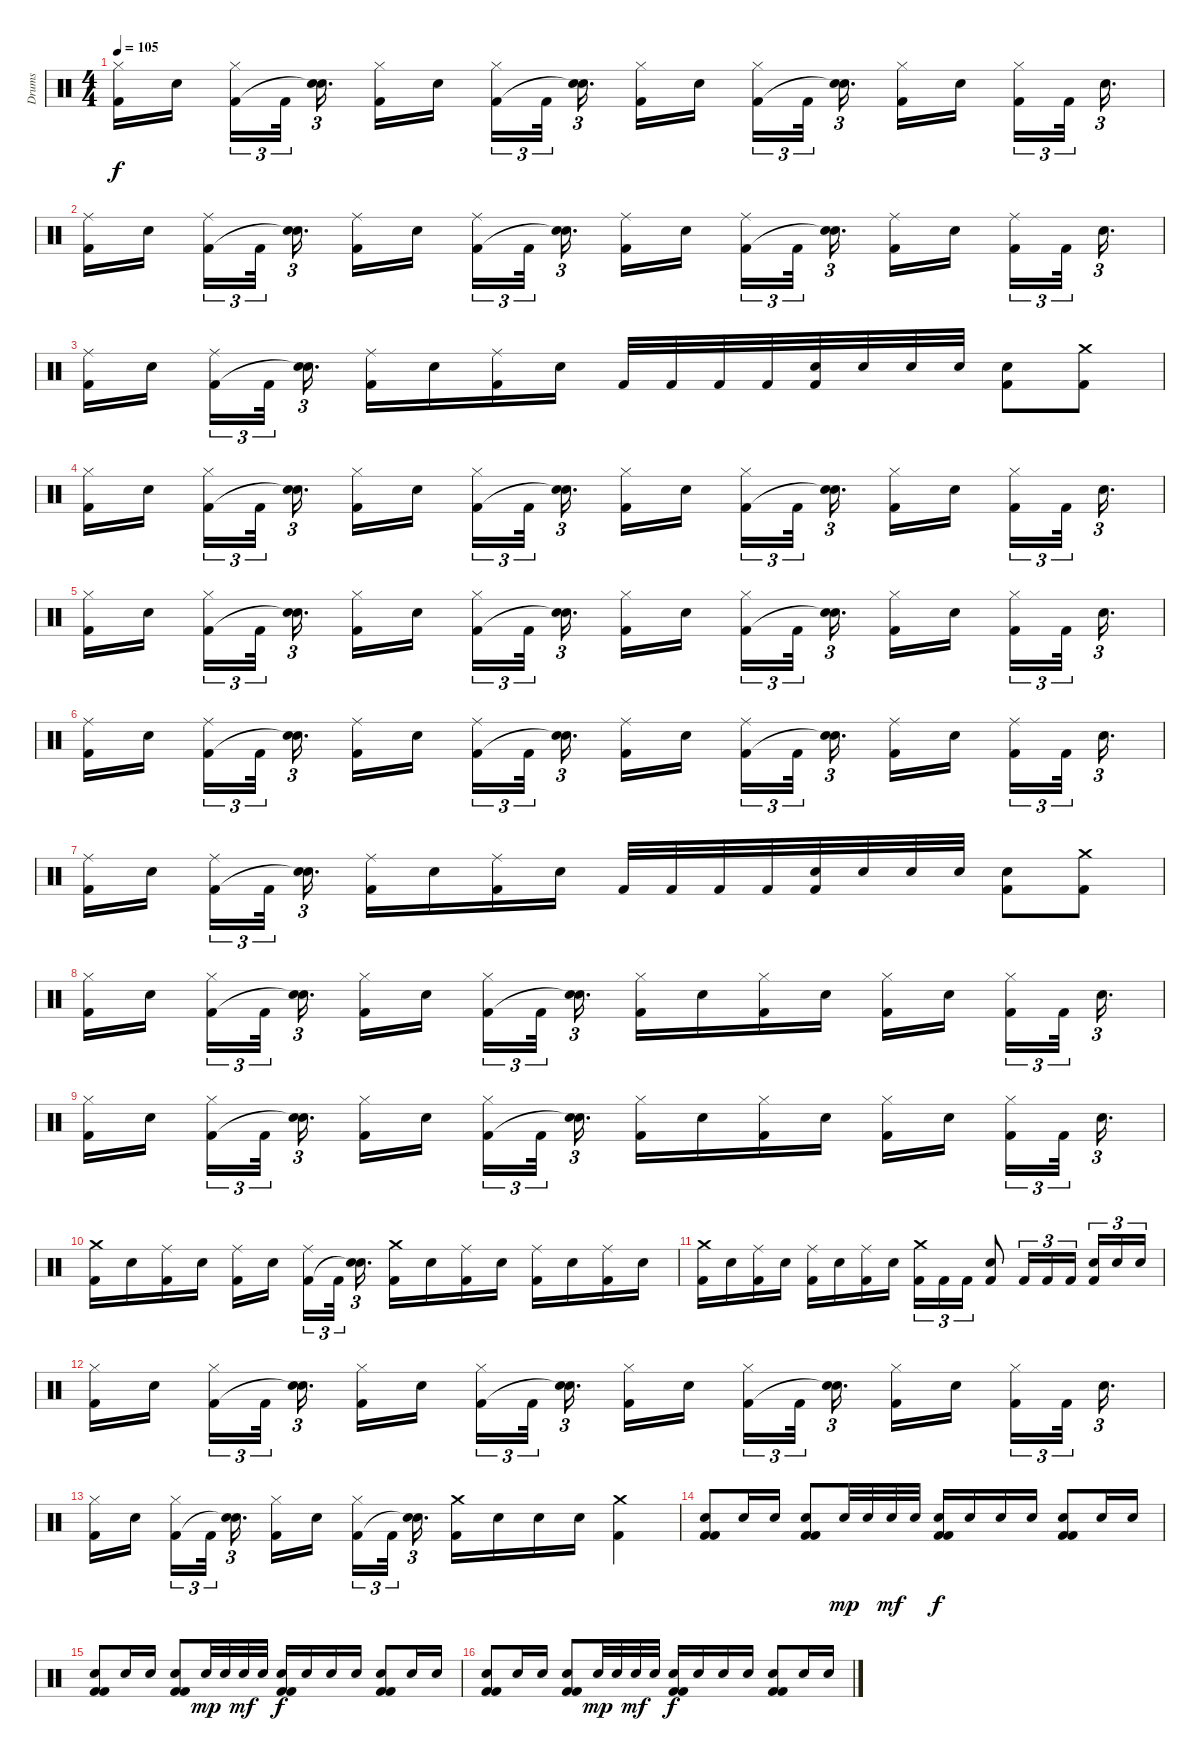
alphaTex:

\track ("Drums" "Drums") {instrument percussion}
\staff {score}
\articulation defaults
\ts (4 4)
\tempo 105
\clef neutral
\ks c
("Hi-Hat (closed)" "Kick (hit) 2").16{dy f} "Electric Snare (hit)".16 ("Hi-Hat (closed)" "Kick (hit) 2").16{tu (3 2)} "Kick (hit) 2".32{tu (3 2)} ("Electric Snare (hit)" "Snare (hit)"{t}).16{d tu (3 2)} ("Hi-Hat (closed)" "Kick (hit) 2").16 "Electric Snare (hit)".16 ("Hi-Hat (closed)" "Kick (hit) 2").16{tu (3 2)} "Kick (hit) 2".32{tu (3 2)} ("Electric Snare (hit)" "Snare (hit)"{t}).16{d tu (3 2)} ("Hi-Hat (closed)" "Kick (hit) 2").16 "Electric Snare (hit)".16 ("Hi-Hat (closed)" "Kick (hit) 2").16{tu (3 2)} "Kick (hit) 2".32{tu (3 2)} ("Electric Snare (hit)" "Snare (hit)"{t}).16{d tu (3 2)} ("Hi-Hat (closed)" "Kick (hit) 2").16 "Electric Snare (hit)".16 ("Hi-Hat (closed)" "Kick (hit) 2").16{tu (3 2)} "Kick (hit) 2".32{tu (3 2)} "Electric Snare (hit)".16{d tu (3 2)} |
("Ride (middle)" "Kick (hit) 2").16 "Electric Snare (hit)".16 ("Ride (middle)" "Kick (hit) 2").16{tu (3 2)} "Kick (hit) 2".32{tu (3 2)} ("Electric Snare (hit)" "Snare (hit)"{t}).16{d tu (3 2)} ("Ride (middle)" "Kick (hit) 2").16 "Electric Snare (hit)".16 ("Ride (middle)" "Kick (hit) 2").16{tu (3 2)} "Kick (hit) 2".32{tu (3 2)} ("Electric Snare (hit)" "Snare (hit)"{t}).16{d tu (3 2)} ("Ride (middle)" "Kick (hit) 2").16 "Electric Snare (hit)".16 ("Ride (middle)" "Kick (hit) 2").16{tu (3 2)} "Kick (hit) 2".32{tu (3 2)} ("Electric Snare (hit)" "Snare (hit)"{t}).16{d tu (3 2)} ("Ride (middle)" "Kick (hit) 2").16 "Electric Snare (hit)".16 ("Ride (middle)" "Kick (hit) 2").16{tu (3 2)} "Kick (hit) 2".32{tu (3 2)} "Electric Snare (hit)".16{d tu (3 2)} |
("Ride (middle)" "Kick (hit) 2").16 "Electric Snare (hit)".16 ("Ride (middle)" "Kick (hit) 2").16{tu (3 2)} "Kick (hit) 2".32{tu (3 2)} ("Electric Snare (hit)" "Snare (hit)"{t}).16{d tu (3 2)} ("Ride (middle)" "Kick (hit) 2").16 "Electric Snare (hit)".16 ("Ride (middle)" "Kick (hit) 2").16 "Electric Snare (hit)".16 "Kick (hit) 2".32 "Kick (hit) 2".32 "Kick (hit) 2".32 "Kick (hit) 2".32 ("Electric Snare (hit)" "Kick (hit) 2").32 "Electric Snare (hit)".32 "Electric Snare (hit)".32 "Electric Snare (hit)".32 ("Electric Snare (hit)" "Kick (hit) 2").8 ("Crash medium (hit)" "Kick (hit) 2").8 |
("Hi-Hat (closed)" "Kick (hit) 2").16 "Electric Snare (hit)".16 ("Hi-Hat (closed)" "Kick (hit) 2").16{tu (3 2)} "Kick (hit) 2".32{tu (3 2)} ("Electric Snare (hit)" "Snare (hit)"{t}).16{d tu (3 2)} ("Hi-Hat (closed)" "Kick (hit) 2").16 "Electric Snare (hit)".16 ("Hi-Hat (closed)" "Kick (hit) 2").16{tu (3 2)} "Kick (hit) 2".32{tu (3 2)} ("Electric Snare (hit)" "Snare (hit)"{t}).16{d tu (3 2)} ("Hi-Hat (closed)" "Kick (hit) 2").16 "Electric Snare (hit)".16 ("Hi-Hat (closed)" "Kick (hit) 2").16{tu (3 2)} "Kick (hit) 2".32{tu (3 2)} ("Electric Snare (hit)" "Snare (hit)"{t}).16{d tu (3 2)} ("Hi-Hat (closed)" "Kick (hit) 2").16 "Electric Snare (hit)".16 ("Hi-Hat (closed)" "Kick (hit) 2").16{tu (3 2)} "Kick (hit) 2".32{tu (3 2)} "Electric Snare (hit)".16{d tu (3 2)} |
("Hi-Hat (closed)" "Kick (hit) 2").16 "Electric Snare (hit)".16 ("Hi-Hat (closed)" "Kick (hit) 2").16{tu (3 2)} "Kick (hit) 2".32{tu (3 2)} ("Electric Snare (hit)" "Snare (hit)"{t}).16{d tu (3 2)} ("Hi-Hat (closed)" "Kick (hit) 2").16 "Electric Snare (hit)".16 ("Hi-Hat (closed)" "Kick (hit) 2").16{tu (3 2)} "Kick (hit) 2".32{tu (3 2)} ("Electric Snare (hit)" "Snare (hit)"{t}).16{d tu (3 2)} ("Hi-Hat (closed)" "Kick (hit) 2").16 "Electric Snare (hit)".16 ("Hi-Hat (closed)" "Kick (hit) 2").16{tu (3 2)} "Kick (hit) 2".32{tu (3 2)} ("Electric Snare (hit)" "Snare (hit)"{t}).16{d tu (3 2)} ("Hi-Hat (closed)" "Kick (hit) 2").16 "Electric Snare (hit)".16 ("Hi-Hat (closed)" "Kick (hit) 2").16{tu (3 2)} "Kick (hit) 2".32{tu (3 2)} "Electric Snare (hit)".16{d tu (3 2)} |
("Ride (middle)" "Kick (hit) 2").16 "Electric Snare (hit)".16 ("Ride (middle)" "Kick (hit) 2").16{tu (3 2)} "Kick (hit) 2".32{tu (3 2)} ("Electric Snare (hit)" "Snare (hit)"{t}).16{d tu (3 2)} ("Ride (middle)" "Kick (hit) 2").16 "Electric Snare (hit)".16 ("Ride (middle)" "Kick (hit) 2").16{tu (3 2)} "Kick (hit) 2".32{tu (3 2)} ("Electric Snare (hit)" "Snare (hit)"{t}).16{d tu (3 2)} ("Ride (middle)" "Kick (hit) 2").16 "Electric Snare (hit)".16 ("Ride (middle)" "Kick (hit) 2").16{tu (3 2)} "Kick (hit) 2".32{tu (3 2)} ("Electric Snare (hit)" "Snare (hit)"{t}).16{d tu (3 2)} ("Ride (middle)" "Kick (hit) 2").16 "Electric Snare (hit)".16 ("Ride (middle)" "Kick (hit) 2").16{tu (3 2)} "Kick (hit) 2".32{tu (3 2)} "Electric Snare (hit)".16{d tu (3 2)} |
("Ride (middle)" "Kick (hit) 2").16 "Electric Snare (hit)".16 ("Ride (middle)" "Kick (hit) 2").16{tu (3 2)} "Kick (hit) 2".32{tu (3 2)} ("Electric Snare (hit)" "Snare (hit)"{t}).16{d tu (3 2)} ("Ride (middle)" "Kick (hit) 2").16 "Electric Snare (hit)".16 ("Ride (middle)" "Kick (hit) 2").16 "Electric Snare (hit)".16 "Kick (hit) 2".32 "Kick (hit) 2".32 "Kick (hit) 2".32 "Kick (hit) 2".32 ("Electric Snare (hit)" "Kick (hit) 2").32 "Electric Snare (hit)".32 "Electric Snare (hit)".32 "Electric Snare (hit)".32 ("Electric Snare (hit)" "Kick (hit) 2").8 ("Crash medium (hit)" "Kick (hit) 2").8 |
("Hi-Hat (closed)" "Kick (hit) 2").16 "Electric Snare (hit)".16 ("Hi-Hat (closed)" "Kick (hit) 2").16{tu (3 2)} "Kick (hit) 2".32{tu (3 2)} ("Electric Snare (hit)" "Snare (hit)"{t}).16{d tu (3 2)} ("Hi-Hat (closed)" "Kick (hit) 2").16 "Electric Snare (hit)".16 ("Hi-Hat (closed)" "Kick (hit) 2").16{tu (3 2)} "Kick (hit) 2".32{tu (3 2)} ("Electric Snare (hit)" "Snare (hit)"{t}).16{d tu (3 2)} ("Hi-Hat (closed)" "Kick (hit) 2").16 "Electric Snare (hit)".16 ("Hi-Hat (closed)" "Kick (hit) 2").16 "Electric Snare (hit)".16 ("Hi-Hat (closed)" "Kick (hit) 2").16 "Electric Snare (hit)".16 ("Hi-Hat (closed)" "Kick (hit) 2").16{tu (3 2)} "Kick (hit) 2".32{tu (3 2)} "Electric Snare (hit)".16{d tu (3 2)} |
("Hi-Hat (closed)" "Kick (hit) 2").16 "Electric Snare (hit)".16 ("Hi-Hat (closed)" "Kick (hit) 2").16{tu (3 2)} "Kick (hit) 2".32{tu (3 2)} ("Electric Snare (hit)" "Snare (hit)"{t}).16{d tu (3 2)} ("Hi-Hat (closed)" "Kick (hit) 2").16 "Electric Snare (hit)".16 ("Hi-Hat (closed)" "Kick (hit) 2").16{tu (3 2)} "Kick (hit) 2".32{tu (3 2)} ("Electric Snare (hit)" "Snare (hit)"{t}).16{d tu (3 2)} ("Hi-Hat (closed)" "Kick (hit) 2").16 "Electric Snare (hit)".16 ("Hi-Hat (closed)" "Kick (hit) 2").16 "Electric Snare (hit)".16 ("Hi-Hat (closed)" "Kick (hit) 2").16 "Electric Snare (hit)".16 ("Hi-Hat (closed)" "Kick (hit) 2").16{tu (3 2)} "Kick (hit) 2".32{tu (3 2)} "Electric Snare (hit)".16{d tu (3 2)} |
("Crash medium (hit)" "Kick (hit) 2").16 "Electric Snare (hit)".16 ("Ride (middle)" "Kick (hit) 2").16 "Electric Snare (hit)".16 ("Ride (middle)" "Kick (hit) 2").16 "Electric Snare (hit)".16 ("Ride (middle)" "Kick (hit) 2").16{tu (3 2)} "Kick (hit) 2".32{tu (3 2)} ("Electric Snare (hit)" "Snare (hit)"{t}).16{d tu (3 2)} ("Crash medium (hit)" "Kick (hit) 2").16 "Electric Snare (hit)".16 ("Ride (middle)" "Kick (hit) 2").16 "Electric Snare (hit)".16 ("Ride (middle)" "Kick (hit) 2").16 "Electric Snare (hit)".16 ("Ride (middle)" "Kick (hit) 2").16 "Electric Snare (hit)".16 |
("Crash medium (hit)" "Kick (hit) 2").16 "Electric Snare (hit)".16 ("Ride (middle)" "Kick (hit) 2").16 "Electric Snare (hit)".16 ("Ride (middle)" "Kick (hit) 2").16 "Electric Snare (hit)".16 ("Ride (middle)" "Kick (hit) 2").16 "Electric Snare (hit)".16 ("Crash medium (hit)" "Kick (hit) 2").16{tu (3 2)} "Kick (hit) 2".16{tu (3 2)} "Kick (hit) 2".16{tu (3 2)} ("Electric Snare (hit)" "Kick (hit) 2").8 "Kick (hit) 2".16{tu (3 2)} "Kick (hit) 2".16{tu (3 2)} "Kick (hit) 2".16{tu (3 2)} ("Electric Snare (hit)" "Kick (hit) 2").16{tu (3 2)} "Electric Snare (hit)".16{tu (3 2)} "Electric Snare (hit)".16{tu (3 2)} |
("Hi-Hat (closed)" "Kick (hit) 2").16 "Electric Snare (hit)".16 ("Hi-Hat (closed)" "Kick (hit) 2").16{tu (3 2)} "Kick (hit) 2".32{tu (3 2)} ("Electric Snare (hit)" "Snare (hit)"{t}).16{d tu (3 2)} ("Hi-Hat (closed)" "Kick (hit) 2").16 "Electric Snare (hit)".16 ("Hi-Hat (closed)" "Kick (hit) 2").16{tu (3 2)} "Kick (hit) 2".32{tu (3 2)} ("Electric Snare (hit)" "Snare (hit)"{t}).16{d tu (3 2)} ("Hi-Hat (closed)" "Kick (hit) 2").16 "Electric Snare (hit)".16 ("Hi-Hat (closed)" "Kick (hit) 2").16{tu (3 2)} "Kick (hit) 2".32{tu (3 2)} ("Electric Snare (hit)" "Snare (hit)"{t}).16{d tu (3 2)} ("Hi-Hat (closed)" "Kick (hit) 2").16 "Electric Snare (hit)".16 ("Hi-Hat (closed)" "Kick (hit) 2").16{tu (3 2)} "Kick (hit) 2".32{tu (3 2)} "Electric Snare (hit)".16{d tu (3 2)} |
("Hi-Hat (closed)" "Kick (hit) 2").16 "Electric Snare (hit)".16 ("Hi-Hat (closed)" "Kick (hit) 2").16{tu (3 2)} "Kick (hit) 2".32{tu (3 2)} ("Electric Snare (hit)" "Snare (hit)"{t}).16{d tu (3 2)} ("Hi-Hat (closed)" "Kick (hit) 2").16 "Electric Snare (hit)".16 ("Hi-Hat (closed)" "Kick (hit) 2").16{tu (3 2)} "Kick (hit) 2".32{tu (3 2)} ("Electric Snare (hit)" "Snare (hit)"{t}).16{d tu (3 2)} ("Crash medium (hit)" "Kick (hit) 2").16 "Electric Snare (hit)".16 "Electric Snare (hit)".16 "Electric Snare (hit)".16 ("Crash medium (hit)" "Kick (hit) 2").4 |
("Snare (hit) 2" "Kick (hit) 2" "Kick (hit) 2").8 "Snare (hit) 2".16 "Snare (hit) 2".16 ("Snare (hit) 2" "Kick (hit) 2" "Kick (hit) 2").8 "Snare (hit) 2".32{dy mp} "Snare (hit) 2".32 "Snare (hit) 2".32{dy mf} "Snare (hit) 2".32 ("Snare (hit) 2" "Kick (hit) 2" "Kick (hit) 2").16{dy f} "Snare (hit) 2".16 "Snare (hit) 2".16 "Snare (hit) 2".16 ("Snare (hit) 2" "Kick (hit) 2" "Kick (hit) 2").8 "Snare (hit) 2".16 "Snare (hit) 2".16 |
("Snare (hit) 2" "Kick (hit) 2" "Kick (hit) 2").8 "Snare (hit) 2".16 "Snare (hit) 2".16 ("Snare (hit) 2" "Kick (hit) 2" "Kick (hit) 2").8 "Snare (hit) 2".32{dy mp} "Snare (hit) 2".32 "Snare (hit) 2".32{dy mf} "Snare (hit) 2".32 ("Snare (hit) 2" "Kick (hit) 2" "Kick (hit) 2").16{dy f} "Snare (hit) 2".16 "Snare (hit) 2".16 "Snare (hit) 2".16 ("Snare (hit) 2" "Kick (hit) 2" "Kick (hit) 2").8 "Snare (hit) 2".16 "Snare (hit) 2".16 |
("Snare (hit) 2" "Kick (hit) 2" "Kick (hit) 2").8 "Snare (hit) 2".16 "Snare (hit) 2".16 ("Snare (hit) 2" "Kick (hit) 2" "Kick (hit) 2").8 "Snare (hit) 2".32{dy mp} "Snare (hit) 2".32 "Snare (hit) 2".32{dy mf} "Snare (hit) 2".32 ("Snare (hit) 2" "Kick (hit) 2" "Kick (hit) 2").16{dy f} "Snare (hit) 2".16 "Snare (hit) 2".16 "Snare (hit) 2".16 ("Snare (hit) 2" "Kick (hit) 2" "Kick (hit) 2").8 "Snare (hit) 2".16 "Snare (hit) 2".16
